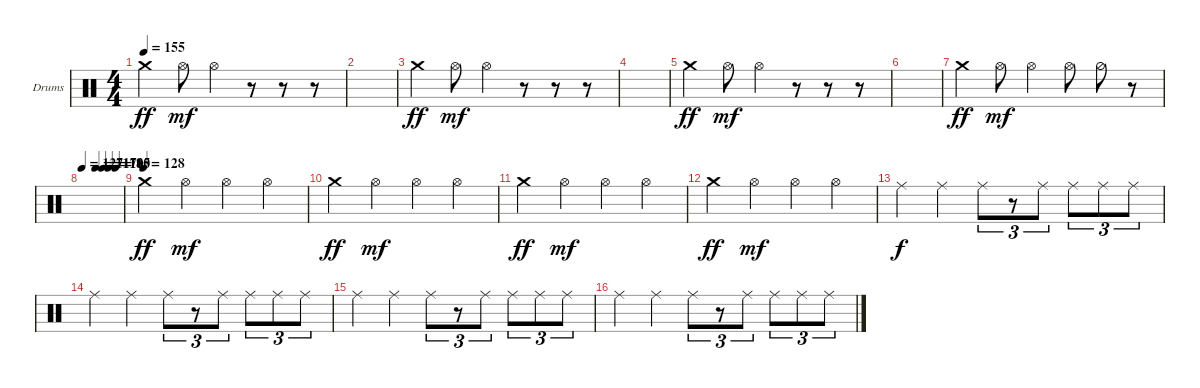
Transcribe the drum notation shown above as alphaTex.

\defaultSystemsLayout 4
\bracketExtendMode groupsimilarinstruments
\firstSystemTrackNameOrientation horizontal
\otherSystemsTrackNameOrientation horizontal
\track ("Drumkit" "Drums") {instrument percussion}
\staff {score}
\articulation defaults
\ts (4 4)
\tempo 155
\clef neutral
\scale
0.333333
\ks c "Crash medium (hit)".4{dy ff} "Hi-Hat (open)".8{dy mf} "Hi-Hat (open)".4
r.8 r.8 r.8 |
\scale
0.333333 |
\scale
0.333333 "Crash medium (hit)".4{dy ff} "Hi-Hat (open)".8{dy mf} "Hi-Hat (open)".4 r.8 r.8 r.8 |
\scale
0.333333 |
\scale
0.333333 "Crash medium (hit)".4{dy ff} "Hi-Hat (open)".8{dy mf} "Hi-Hat (open)".4 r.8 r.8 r.8 |
\scale
0.333333 |
\scale
0.333333 "Crash medium (hit)".4{dy ff} "Hi-Hat (open)".8{dy mf} "Hi-Hat (open)".4 "Hi-Hat (open)".8 "Hi-Hat (half)".8 r.8 |
\tempo 127
\tempo (117 0.333333)
\tempo (110 0.5)
\tempo (110 0.6625)
\tempo (85 0.833333)
\scale
0.333333 |
\tempo 128
\scale
0.333333 "Crash medium (hit)".4{dy ff} "Hi-Hat (open)".4{dy mf} "Hi-Hat (open)".4 "Hi-Hat (open)".4 |
\scale
0.333333 "Crash medium (hit)".4{dy ff} "Hi-Hat (open)".4{dy mf} "Hi-Hat (open)".4 "Hi-Hat (open)".4 |
\scale
0.333333 "Crash medium (hit)".4{dy ff} "Hi-Hat (open)".4{dy mf} "Hi-Hat (open)".4 "Hi-Hat (open)".4 |
\scale
0.333333 "Crash medium (hit)".4{dy ff} "Hi-Hat (open)".4{dy mf} "Hi-Hat (open)".4 "Hi-Hat (open)".4 |
\scale
0.333333 "Ride (middle)".4{dy f} "Ride (middle)".4 "Ride (middle)".8{tu (3 2)} r.8{tu (3 2)} "Ride (middle)".8{tu (3 2)} "Ride (middle)".8{tu (3 2)} "Ride (middle)".8{tu (3 2)} "Ride (middle)".8{tu (3 2)} |
\scale
0.333333 "Ride (middle)".4 "Ride (middle)".4 "Ride (middle)".8{tu (3 2)} r.8{tu (3 2)} "Ride (middle)".8{tu (3 2)} "Ride (middle)".8{tu (3 2)} "Ride (middle)".8{tu (3 2)} "Ride (middle)".8{tu (3 2)} |
\scale
0.333333 "Ride (middle)".4 "Ride (middle)".4 "Ride (middle)".8{tu (3 2)} r.8{tu (3 2)} "Ride (middle)".8{tu (3 2)} "Ride (middle)".8{tu (3 2)} "Ride (middle)".8{tu (3 2)} "Ride (middle)".8{tu (3 2)} |
\scale
0.333333 "Ride (middle)".4 "Ride (middle)".4 "Ride (middle)".8{tu (3 2)} r.8{tu (3 2)} "Ride (middle)".8{tu (3 2)} "Ride (middle)".8{tu (3 2)} "Ride (middle)".8{tu (3 2)} "Ride (middle)".8{tu (3 2)}
